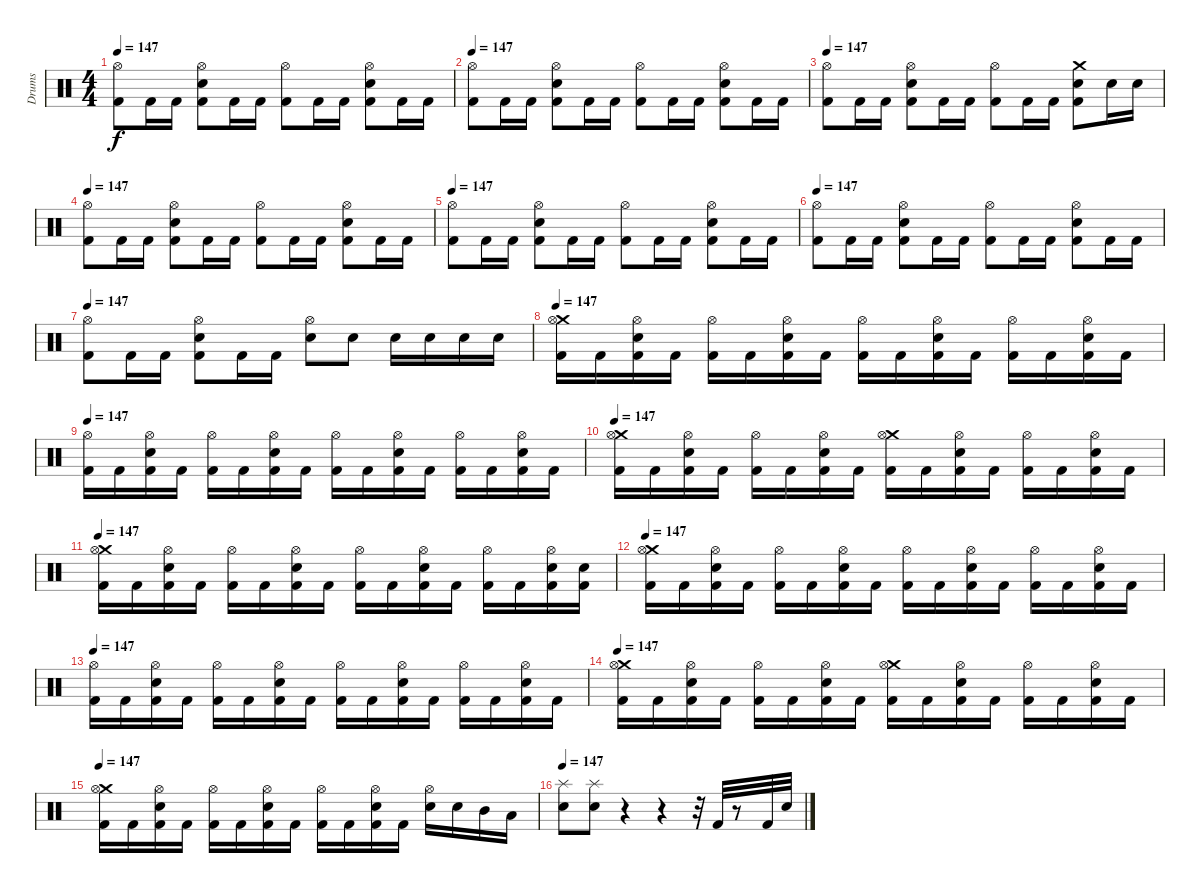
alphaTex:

\track ("Drums" "Drums") {instrument percussion}
\staff {score}
\articulation defaults
\ts (4 4)
\tempo 147
\clef neutral
\ks c
("Hi-Hat (open)" "Kick (hit) 2").8{dy f} "Kick (hit) 2".16 "Kick (hit) 2".16 ("Hi-Hat (open)" "Electric Snare (hit)" "Kick (hit) 2").8 "Kick (hit) 2".16 "Kick (hit) 2".16 ("Hi-Hat (open)" "Kick (hit) 2").8 "Kick (hit) 2".16 "Kick (hit) 2".16 ("Hi-Hat (open)" "Electric Snare (hit)" "Kick (hit) 2").8 "Kick (hit) 2".16 "Kick (hit) 2".16 |
\tempo 147
("Hi-Hat (open)" "Kick (hit) 2").8 "Kick (hit) 2".16 "Kick (hit) 2".16 ("Hi-Hat (open)" "Electric Snare (hit)" "Kick (hit) 2").8 "Kick (hit) 2".16 "Kick (hit) 2".16 ("Hi-Hat (open)" "Kick (hit) 2").8 "Kick (hit) 2".16 "Kick (hit) 2".16 ("Hi-Hat (open)" "Electric Snare (hit)" "Kick (hit) 2").8 "Kick (hit) 2".16 "Kick (hit) 2".16 |
\tempo 147
("Hi-Hat (open)" "Kick (hit) 2").8 "Kick (hit) 2".16 "Kick (hit) 2".16 ("Hi-Hat (open)" "Electric Snare (hit)" "Kick (hit) 2").8 "Kick (hit) 2".16 "Kick (hit) 2".16 ("Hi-Hat (open)" "Kick (hit) 2").8 "Kick (hit) 2".16 "Kick (hit) 2".16 ("Crash medium (hit)" "Electric Snare (hit)" "Kick (hit) 2").8 "Electric Snare (hit)".16 "Electric Snare (hit)".16 |
\tempo 147
("Hi-Hat (open)" "Kick (hit) 2").8 "Kick (hit) 2".16 "Kick (hit) 2".16 ("Hi-Hat (open)" "Electric Snare (hit)" "Kick (hit) 2").8 "Kick (hit) 2".16 "Kick (hit) 2".16 ("Hi-Hat (open)" "Kick (hit) 2").8 "Kick (hit) 2".16 "Kick (hit) 2".16 ("Hi-Hat (open)" "Electric Snare (hit)" "Kick (hit) 2").8 "Kick (hit) 2".16 "Kick (hit) 2".16 |
\tempo 147
("Hi-Hat (open)" "Kick (hit) 2").8 "Kick (hit) 2".16 "Kick (hit) 2".16 ("Hi-Hat (open)" "Electric Snare (hit)" "Kick (hit) 2").8 "Kick (hit) 2".16 "Kick (hit) 2".16 ("Hi-Hat (open)" "Kick (hit) 2").8 "Kick (hit) 2".16 "Kick (hit) 2".16 ("Hi-Hat (open)" "Electric Snare (hit)" "Kick (hit) 2").8 "Kick (hit) 2".16 "Kick (hit) 2".16 |
\tempo 147
("Hi-Hat (open)" "Kick (hit) 2").8 "Kick (hit) 2".16 "Kick (hit) 2".16 ("Hi-Hat (open)" "Electric Snare (hit)" "Kick (hit) 2").8 "Kick (hit) 2".16 "Kick (hit) 2".16 ("Hi-Hat (open)" "Kick (hit) 2").8 "Kick (hit) 2".16 "Kick (hit) 2".16 ("Hi-Hat (open)" "Electric Snare (hit)" "Kick (hit) 2").8 "Kick (hit) 2".16 "Kick (hit) 2".16 |
\tempo 147
("Hi-Hat (open)" "Kick (hit) 2").8 "Kick (hit) 2".16 "Kick (hit) 2".16 ("Hi-Hat (open)" "Electric Snare (hit)" "Kick (hit) 2").8 "Kick (hit) 2".16 "Kick (hit) 2".16 ("Hi-Hat (open)" "Snare (hit) 2").8 "Snare (hit) 2".8 "Snare (hit) 2".16 "Snare (hit) 2".16 "Snare (hit) 2".16 "Snare (hit) 2".16 |
\tempo 147
("Crash medium (hit)" "Hi-Hat (open)" "Kick (hit) 2").16 "Kick (hit) 2".16 ("Hi-Hat (open)" "Electric Snare (hit)" "Kick (hit) 2").16 "Kick (hit) 2".16 ("Hi-Hat (open)" "Kick (hit) 2").16 "Kick (hit) 2".16 ("Hi-Hat (open)" "Electric Snare (hit)" "Kick (hit) 2").16 "Kick (hit) 2".16 ("Hi-Hat (open)" "Kick (hit) 2").16 "Kick (hit) 2".16 ("Hi-Hat (open)" "Electric Snare (hit)" "Kick (hit) 2").16 "Kick (hit) 2".16 ("Hi-Hat (open)" "Kick (hit) 2").16 "Kick (hit) 2".16 ("Hi-Hat (open)" "Electric Snare (hit)" "Kick (hit) 2").16 "Kick (hit) 2".16 |
\tempo 147
("Hi-Hat (open)" "Kick (hit) 2").16 "Kick (hit) 2".16 ("Hi-Hat (open)" "Electric Snare (hit)" "Kick (hit) 2").16 "Kick (hit) 2".16 ("Hi-Hat (open)" "Kick (hit) 2").16 "Kick (hit) 2".16 ("Hi-Hat (open)" "Electric Snare (hit)" "Kick (hit) 2").16 "Kick (hit) 2".16 ("Hi-Hat (open)" "Kick (hit) 2").16 "Kick (hit) 2".16 ("Hi-Hat (open)" "Electric Snare (hit)" "Kick (hit) 2").16 "Kick (hit) 2".16 ("Hi-Hat (open)" "Kick (hit) 2").16 "Kick (hit) 2".16 ("Hi-Hat (open)" "Electric Snare (hit)" "Kick (hit) 2").16 "Kick (hit) 2".16 |
\tempo 147
("Crash medium (hit)" "Hi-Hat (open)" "Kick (hit) 2").16 "Kick (hit) 2".16 ("Hi-Hat (open)" "Electric Snare (hit)" "Kick (hit) 2").16 "Kick (hit) 2".16 ("Hi-Hat (open)" "Kick (hit) 2").16 "Kick (hit) 2".16 ("Hi-Hat (open)" "Electric Snare (hit)" "Kick (hit) 2").16 "Kick (hit) 2".16 ("Crash medium (hit)" "Hi-Hat (open)" "Kick (hit) 2").16 "Kick (hit) 2".16 ("Hi-Hat (open)" "Electric Snare (hit)" "Kick (hit) 2").16 "Kick (hit) 2".16 ("Hi-Hat (open)" "Kick (hit) 2").16 "Kick (hit) 2".16 ("Hi-Hat (open)" "Electric Snare (hit)" "Kick (hit) 2").16 "Kick (hit) 2".16 |
\tempo 147
("Crash medium (hit)" "Hi-Hat (open)" "Kick (hit) 2").16 "Kick (hit) 2".16 ("Hi-Hat (open)" "Electric Snare (hit)" "Kick (hit) 2").16 "Kick (hit) 2".16 ("Hi-Hat (open)" "Kick (hit) 2").16 "Kick (hit) 2".16 ("Hi-Hat (open)" "Electric Snare (hit)" "Kick (hit) 2").16 "Kick (hit) 2".16 ("Hi-Hat (open)" "Kick (hit) 2").16 "Kick (hit) 2".16 ("Hi-Hat (open)" "Electric Snare (hit)" "Kick (hit) 2").16 "Kick (hit) 2".16 ("Hi-Hat (open)" "Kick (hit) 2").16 "Kick (hit) 2".16 ("Hi-Hat (open)" "Electric Snare (hit)" "Kick (hit) 2").16 ("Electric Snare (hit)" "Kick (hit) 2").16 |
\tempo 147
("Crash medium (hit)" "Hi-Hat (open)" "Kick (hit) 2").16 "Kick (hit) 2".16 ("Hi-Hat (open)" "Electric Snare (hit)" "Kick (hit) 2").16 "Kick (hit) 2".16 ("Hi-Hat (open)" "Kick (hit) 2").16 "Kick (hit) 2".16 ("Hi-Hat (open)" "Electric Snare (hit)" "Kick (hit) 2").16 "Kick (hit) 2".16 ("Hi-Hat (open)" "Kick (hit) 2").16 "Kick (hit) 2".16 ("Hi-Hat (open)" "Electric Snare (hit)" "Kick (hit) 2").16 "Kick (hit) 2".16 ("Hi-Hat (open)" "Kick (hit) 2").16 "Kick (hit) 2".16 ("Hi-Hat (open)" "Electric Snare (hit)" "Kick (hit) 2").16 "Kick (hit) 2".16 |
\tempo 147
("Hi-Hat (open)" "Kick (hit) 2").16 "Kick (hit) 2".16 ("Hi-Hat (open)" "Electric Snare (hit)" "Kick (hit) 2").16 "Kick (hit) 2".16 ("Hi-Hat (open)" "Kick (hit) 2").16 "Kick (hit) 2".16 ("Hi-Hat (open)" "Electric Snare (hit)" "Kick (hit) 2").16 "Kick (hit) 2".16 ("Hi-Hat (open)" "Kick (hit) 2").16 "Kick (hit) 2".16 ("Hi-Hat (open)" "Electric Snare (hit)" "Kick (hit) 2").16 "Kick (hit) 2".16 ("Hi-Hat (open)" "Kick (hit) 2").16 "Kick (hit) 2".16 ("Hi-Hat (open)" "Electric Snare (hit)" "Kick (hit) 2").16 "Kick (hit) 2".16 |
\tempo 147
("Crash medium (hit)" "Hi-Hat (open)" "Kick (hit) 2").16 "Kick (hit) 2".16 ("Hi-Hat (open)" "Electric Snare (hit)" "Kick (hit) 2").16 "Kick (hit) 2".16 ("Hi-Hat (open)" "Kick (hit) 2").16 "Kick (hit) 2".16 ("Hi-Hat (open)" "Electric Snare (hit)" "Kick (hit) 2").16 "Kick (hit) 2".16 ("Crash medium (hit)" "Hi-Hat (open)" "Kick (hit) 2").16 "Kick (hit) 2".16 ("Hi-Hat (open)" "Electric Snare (hit)" "Kick (hit) 2").16 "Kick (hit) 2".16 ("Hi-Hat (open)" "Kick (hit) 2").16 "Kick (hit) 2".16 ("Hi-Hat (open)" "Electric Snare (hit)" "Kick (hit) 2").16 "Kick (hit) 2".16 |
\tempo 147
("Crash medium (hit)" "Hi-Hat (open)" "Kick (hit) 2").16 "Kick (hit) 2".16 ("Hi-Hat (open)" "Electric Snare (hit)" "Kick (hit) 2").16 "Kick (hit) 2".16 ("Hi-Hat (open)" "Kick (hit) 2").16 "Kick (hit) 2".16 ("Hi-Hat (open)" "Electric Snare (hit)" "Kick (hit) 2").16 "Kick (hit) 2".16 ("Hi-Hat (open)" "Kick (hit) 2").16 "Kick (hit) 2".16 ("Hi-Hat (open)" "Electric Snare (hit)" "Kick (hit) 2").16 "Kick (hit) 2".16 ("Hi-Hat (open)" "Electric Snare (hit)").16 "Electric Snare (hit)".16 "Mid Tom (hit)".16 "Low Tom (hit)".16 |
\tempo 147
("Splash (hit)" "Electric Snare (hit)").8 ("Splash (hit)" "Electric Snare (hit)").8 r.4 r.4 r.32 "Kick (hit) 2".32 r.8 "Kick (hit) 2".32 "Snare (hit)".32
